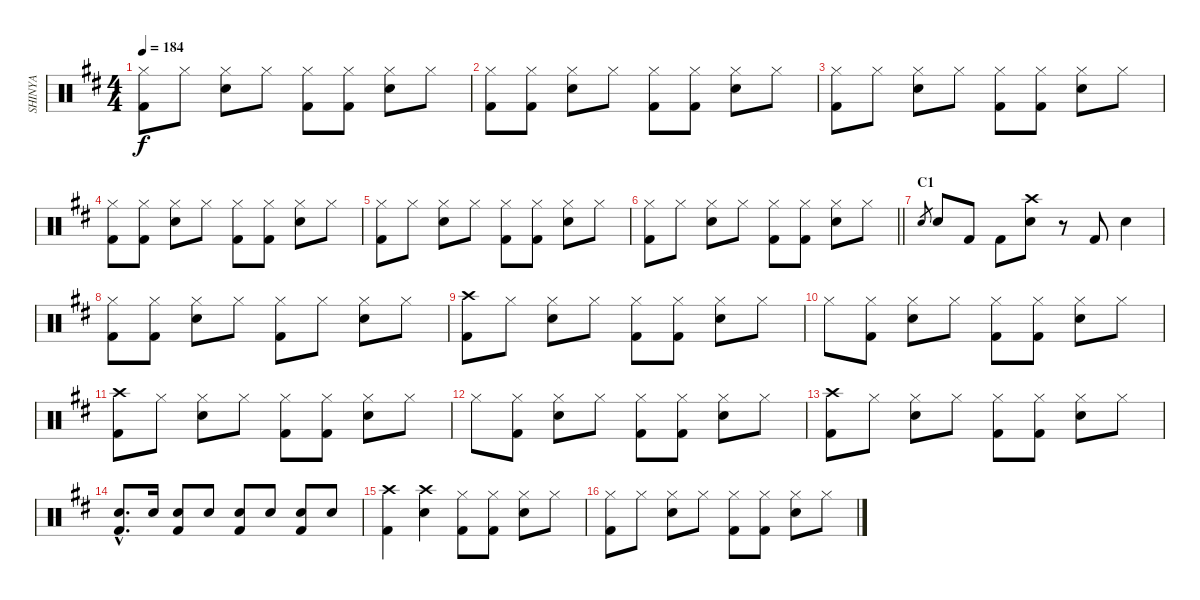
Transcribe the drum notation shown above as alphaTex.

\track ("SHINYA" "SHINYA") {instrument percussion}
\staff {score}
\articulation defaults
\ts (4 4)
\tempo 184
\clef neutral
\ks bminor
("Hi-Hat (closed)" "Kick (hit) 2").8{dy f} "Hi-Hat (closed)".8 ("Hi-Hat (closed)" "Snare (hit) 2").8 "Hi-Hat (closed)".8 ("Hi-Hat (closed)" "Kick (hit) 2").8 ("Hi-Hat (closed)" "Kick (hit) 2").8 ("Hi-Hat (closed)" "Snare (hit) 2").8 "Hi-Hat (closed)".8 |
("Hi-Hat (closed)" "Kick (hit) 2").8 ("Hi-Hat (closed)" "Kick (hit) 2").8 ("Hi-Hat (closed)" "Snare (hit) 2").8 "Hi-Hat (closed)".8 ("Hi-Hat (closed)" "Kick (hit) 2").8 ("Hi-Hat (closed)" "Kick (hit) 2").8 ("Hi-Hat (closed)" "Snare (hit) 2").8 "Hi-Hat (closed)".8 |
("Hi-Hat (closed)" "Kick (hit) 2").8 "Hi-Hat (closed)".8 ("Hi-Hat (closed)" "Snare (hit) 2").8 "Hi-Hat (closed)".8 ("Hi-Hat (closed)" "Kick (hit) 2").8 ("Hi-Hat (closed)" "Kick (hit) 2").8 ("Hi-Hat (closed)" "Snare (hit) 2").8 "Hi-Hat (closed)".8 |
("Hi-Hat (closed)" "Kick (hit) 2").8 ("Hi-Hat (closed)" "Kick (hit) 2").8 ("Hi-Hat (closed)" "Snare (hit) 2").8 "Hi-Hat (closed)".8 ("Hi-Hat (closed)" "Kick (hit) 2").8 ("Hi-Hat (closed)" "Kick (hit) 2").8 ("Hi-Hat (closed)" "Snare (hit) 2").8 "Hi-Hat (closed)".8 |
("Hi-Hat (closed)" "Kick (hit) 2").8 "Hi-Hat (closed)".8 ("Hi-Hat (closed)" "Snare (hit) 2").8 "Hi-Hat (closed)".8 ("Hi-Hat (closed)" "Kick (hit) 2").8 ("Hi-Hat (closed)" "Kick (hit) 2").8 ("Hi-Hat (closed)" "Snare (hit) 2").8 "Hi-Hat (closed)".8 |
\barLineRight lightlight
("Hi-Hat (closed)" "Kick (hit) 2").8 "Hi-Hat (closed)".8 ("Hi-Hat (closed)" "Snare (hit) 2").8 "Hi-Hat (closed)".8 ("Hi-Hat (closed)" "Kick (hit) 2").8 ("Hi-Hat (closed)" "Kick (hit) 2").8 ("Hi-Hat (closed)" "Snare (hit) 2").8 "Hi-Hat (closed)".8 |
\section ("" "C1")
"Snare (hit) 2".8{gr} "Snare (hit) 2".8 "Kick (hit) 2".8 "Kick (hit) 2".8 ("Crash high (hit)" "Snare (hit) 2").8 r.8 "Kick (hit) 2".8 "Snare (hit) 2".4 |
("Hi-Hat (closed)" "Kick (hit) 2").8 ("Hi-Hat (closed)" "Kick (hit) 2").8 ("Hi-Hat (closed)" "Snare (hit) 2").8 "Hi-Hat (closed)".8 ("Hi-Hat (closed)" "Kick (hit) 2").8 "Hi-Hat (closed)".8 ("Hi-Hat (closed)" "Snare (hit) 2").8 "Hi-Hat (closed)".8 |
("Crash high (hit)" "Kick (hit) 2").8 "Hi-Hat (closed)".8 ("Hi-Hat (closed)" "Snare (hit) 2").8 "Hi-Hat (closed)".8 ("Hi-Hat (closed)" "Kick (hit) 2").8 ("Hi-Hat (closed)" "Kick (hit) 2").8 ("Hi-Hat (closed)" "Snare (hit) 2").8 "Hi-Hat (closed)".8 |
"Hi-Hat (closed)".8 ("Hi-Hat (closed)" "Kick (hit) 2").8 ("Hi-Hat (closed)" "Snare (hit) 2").8 "Hi-Hat (closed)".8 ("Hi-Hat (closed)" "Kick (hit) 2").8 ("Hi-Hat (closed)" "Kick (hit) 2").8 ("Hi-Hat (closed)" "Snare (hit) 2").8 "Hi-Hat (closed)".8 |
("Crash high (hit)" "Kick (hit) 2").8 "Hi-Hat (closed)".8 ("Hi-Hat (closed)" "Snare (hit) 2").8 "Hi-Hat (closed)".8 ("Hi-Hat (closed)" "Kick (hit) 2").8 ("Hi-Hat (closed)" "Kick (hit) 2").8 ("Hi-Hat (closed)" "Snare (hit) 2").8 "Hi-Hat (closed)".8 |
"Hi-Hat (closed)".8 ("Hi-Hat (closed)" "Kick (hit) 2").8 ("Hi-Hat (closed)" "Snare (hit) 2").8 "Hi-Hat (closed)".8 ("Hi-Hat (closed)" "Kick (hit) 2").8 ("Hi-Hat (closed)" "Kick (hit) 2").8 ("Hi-Hat (closed)" "Snare (hit) 2").8 "Hi-Hat (closed)".8 |
("Crash high (hit)" "Kick (hit) 2").8 "Hi-Hat (closed)".8 ("Hi-Hat (closed)" "Snare (hit) 2").8 "Hi-Hat (closed)".8 ("Hi-Hat (closed)" "Kick (hit) 2").8 ("Hi-Hat (closed)" "Kick (hit) 2").8 ("Hi-Hat (closed)" "Snare (hit) 2").8 "Hi-Hat (closed)".8 |
("Snare (hit) 2"{hac} "Kick (hit) 2"{hac}).8{d} "Snare (hit) 2".16 ("Snare (hit) 2" "Kick (hit) 2").8 "Snare (hit) 2".8 ("Snare (hit) 2" "Kick (hit) 2").8 "Snare (hit) 2".8 ("Snare (hit) 2" "Kick (hit) 2").8 "Snare (hit) 2".8 |
("Crash high (hit)" "Kick (hit) 2").4 ("Crash high (hit)" "Snare (hit) 2").4 ("Hi-Hat (closed)" "Kick (hit) 2").8 ("Hi-Hat (closed)" "Kick (hit) 2").8 ("Hi-Hat (closed)" "Snare (hit) 2").8 "Hi-Hat (closed)".8 |
("Hi-Hat (closed)" "Kick (hit) 2").8 "Hi-Hat (closed)".8 ("Hi-Hat (closed)" "Snare (hit) 2").8 "Hi-Hat (closed)".8 ("Hi-Hat (closed)" "Kick (hit) 2").8 ("Hi-Hat (closed)" "Kick (hit) 2").8 ("Hi-Hat (closed)" "Snare (hit) 2").8 "Hi-Hat (closed)".8
